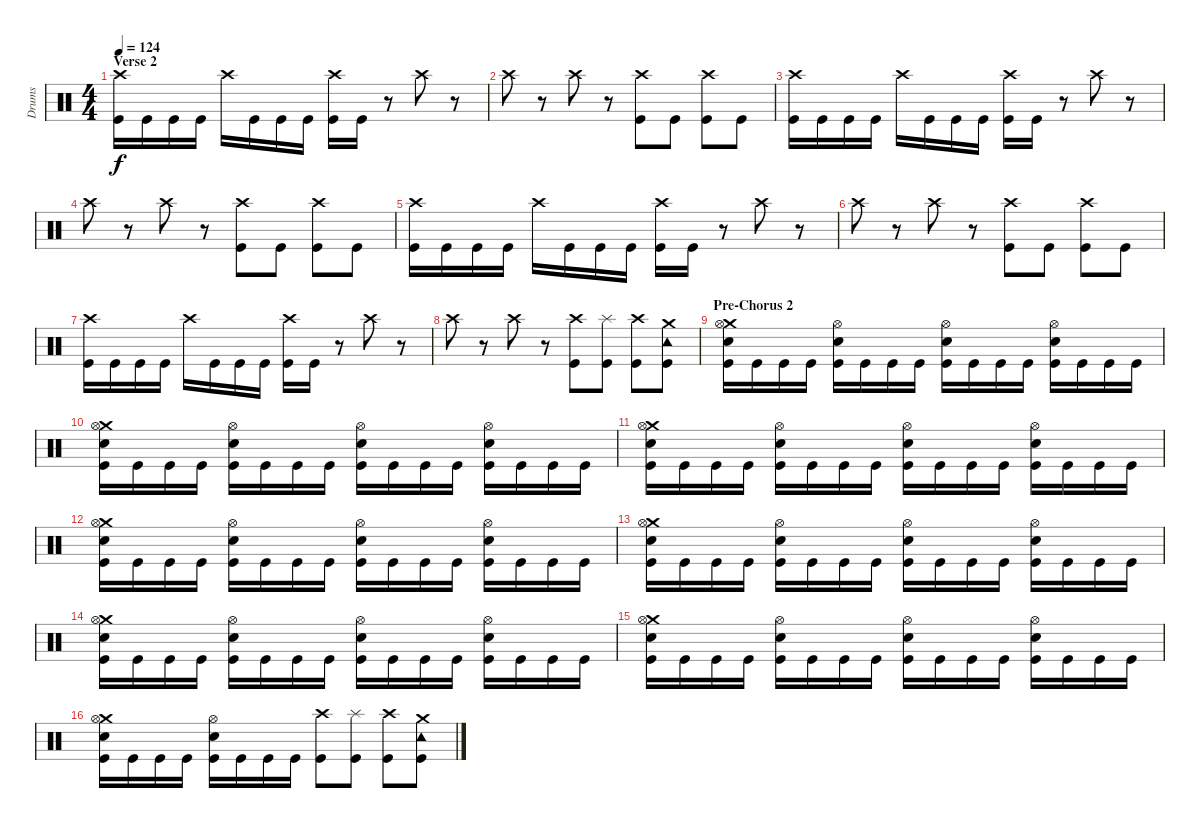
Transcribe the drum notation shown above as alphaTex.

\track ("Drums" "Drums") {instrument percussion}
\staff {score}
\articulation defaults
\ts (4 4)
\section ("" "Verse 2")
\tempo 124
\clef neutral
\ks c
("Crash high (hit)" "Kick (hit)").16{dy f} "Kick (hit)".16 "Kick (hit)".16 "Kick (hit)".16 "Crash high (hit)".16 "Kick (hit)".16 "Kick (hit)".16 "Kick (hit)".16 ("Crash high (hit)" "Kick (hit)").16 "Kick (hit)".16 r.8 "Crash high (hit)".8 r.8 |
"Crash high (hit)".8 r.8 "Crash high (hit)".8 r.8 ("Crash high (hit)" "Kick (hit)").8 "Kick (hit)".8 ("Crash high (hit)" "Kick (hit)").8 "Kick (hit)".8 |
("Crash high (hit)" "Kick (hit)").16 "Kick (hit)".16 "Kick (hit)".16 "Kick (hit)".16 "Crash high (hit)".16 "Kick (hit)".16 "Kick (hit)".16 "Kick (hit)".16 ("Crash high (hit)" "Kick (hit)").16 "Kick (hit)".16 r.8 "Crash high (hit)".8 r.8 |
"Crash high (hit)".8 r.8 "Crash high (hit)".8 r.8 ("Crash high (hit)" "Kick (hit)").8 "Kick (hit)".8 ("Crash high (hit)" "Kick (hit)").8 "Kick (hit)".8 |
("Crash high (hit)" "Kick (hit)").16 "Kick (hit)".16 "Kick (hit)".16 "Kick (hit)".16 "Crash high (hit)".16 "Kick (hit)".16 "Kick (hit)".16 "Kick (hit)".16 ("Crash high (hit)" "Kick (hit)").16 "Kick (hit)".16 r.8 "Crash high (hit)".8 r.8 |
"Crash high (hit)".8 r.8 "Crash high (hit)".8 r.8 ("Crash high (hit)" "Kick (hit)").8 "Kick (hit)".8 ("Crash high (hit)" "Kick (hit)").8 "Kick (hit)".8 |
("Crash high (hit)" "Kick (hit)").16 "Kick (hit)".16 "Kick (hit)".16 "Kick (hit)".16 "Crash high (hit)".16 "Kick (hit)".16 "Kick (hit)".16 "Kick (hit)".16 ("Crash high (hit)" "Kick (hit)").16 "Kick (hit)".16 r.8 "Crash high (hit)".8 r.8 |
"Crash high (hit)".8 r.8 "Crash high (hit)".8 r.8 ("Crash high (hit)" "Kick (hit)").8 ("Splash (hit)" "Kick (hit)").8 ("Crash high (hit)" "Kick (hit)").8 ("Tambourine (hit)" "Crash medium (hit)" "Kick (hit)").8 |
\section ("" "Pre-Chorus 2")
("Crash medium (hit)" "Electric Snare (hit)" "Hi-Hat (open)" "Kick (hit)").16 "Kick (hit)".16 "Kick (hit)".16 "Kick (hit)".16 ("Electric Snare (hit)" "Hi-Hat (open)" "Kick (hit)").16 "Kick (hit)".16 "Kick (hit)".16 "Kick (hit)".16 ("Electric Snare (hit)" "Hi-Hat (open)" "Kick (hit)").16 "Kick (hit)".16 "Kick (hit)".16 "Kick (hit)".16 ("Hi-Hat (open)" "Electric Snare (hit)" "Kick (hit)").16 "Kick (hit)".16 "Kick (hit)".16 "Kick (hit)".16 |
("Crash medium (hit)" "Electric Snare (hit)" "Hi-Hat (open)" "Kick (hit)").16 "Kick (hit)".16 "Kick (hit)".16 "Kick (hit)".16 ("Electric Snare (hit)" "Hi-Hat (open)" "Kick (hit)").16 "Kick (hit)".16 "Kick (hit)".16 "Kick (hit)".16 ("Electric Snare (hit)" "Hi-Hat (open)" "Kick (hit)").16 "Kick (hit)".16 "Kick (hit)".16 "Kick (hit)".16 ("Hi-Hat (open)" "Electric Snare (hit)" "Kick (hit)").16 "Kick (hit)".16 "Kick (hit)".16 "Kick (hit)".16 |
("Crash medium (hit)" "Electric Snare (hit)" "Hi-Hat (open)" "Kick (hit)").16 "Kick (hit)".16 "Kick (hit)".16 "Kick (hit)".16 ("Electric Snare (hit)" "Hi-Hat (open)" "Kick (hit)").16 "Kick (hit)".16 "Kick (hit)".16 "Kick (hit)".16 ("Electric Snare (hit)" "Hi-Hat (open)" "Kick (hit)").16 "Kick (hit)".16 "Kick (hit)".16 "Kick (hit)".16 ("Hi-Hat (open)" "Electric Snare (hit)" "Kick (hit)").16 "Kick (hit)".16 "Kick (hit)".16 "Kick (hit)".16 |
("Crash medium (hit)" "Electric Snare (hit)" "Hi-Hat (open)" "Kick (hit)").16 "Kick (hit)".16 "Kick (hit)".16 "Kick (hit)".16 ("Electric Snare (hit)" "Hi-Hat (open)" "Kick (hit)").16 "Kick (hit)".16 "Kick (hit)".16 "Kick (hit)".16 ("Electric Snare (hit)" "Hi-Hat (open)" "Kick (hit)").16 "Kick (hit)".16 "Kick (hit)".16 "Kick (hit)".16 ("Hi-Hat (open)" "Electric Snare (hit)" "Kick (hit)").16 "Kick (hit)".16 "Kick (hit)".16 "Kick (hit)".16 |
("Crash medium (hit)" "Electric Snare (hit)" "Hi-Hat (open)" "Kick (hit)").16 "Kick (hit)".16 "Kick (hit)".16 "Kick (hit)".16 ("Electric Snare (hit)" "Hi-Hat (open)" "Kick (hit)").16 "Kick (hit)".16 "Kick (hit)".16 "Kick (hit)".16 ("Electric Snare (hit)" "Hi-Hat (open)" "Kick (hit)").16 "Kick (hit)".16 "Kick (hit)".16 "Kick (hit)".16 ("Hi-Hat (open)" "Electric Snare (hit)" "Kick (hit)").16 "Kick (hit)".16 "Kick (hit)".16 "Kick (hit)".16 |
("Crash medium (hit)" "Electric Snare (hit)" "Hi-Hat (open)" "Kick (hit)").16 "Kick (hit)".16 "Kick (hit)".16 "Kick (hit)".16 ("Electric Snare (hit)" "Hi-Hat (open)" "Kick (hit)").16 "Kick (hit)".16 "Kick (hit)".16 "Kick (hit)".16 ("Electric Snare (hit)" "Hi-Hat (open)" "Kick (hit)").16 "Kick (hit)".16 "Kick (hit)".16 "Kick (hit)".16 ("Hi-Hat (open)" "Electric Snare (hit)" "Kick (hit)").16 "Kick (hit)".16 "Kick (hit)".16 "Kick (hit)".16 |
("Crash medium (hit)" "Electric Snare (hit)" "Hi-Hat (open)" "Kick (hit)").16 "Kick (hit)".16 "Kick (hit)".16 "Kick (hit)".16 ("Electric Snare (hit)" "Hi-Hat (open)" "Kick (hit)").16 "Kick (hit)".16 "Kick (hit)".16 "Kick (hit)".16 ("Electric Snare (hit)" "Hi-Hat (open)" "Kick (hit)").16 "Kick (hit)".16 "Kick (hit)".16 "Kick (hit)".16 ("Hi-Hat (open)" "Electric Snare (hit)" "Kick (hit)").16 "Kick (hit)".16 "Kick (hit)".16 "Kick (hit)".16 |
("Crash medium (hit)" "Electric Snare (hit)" "Hi-Hat (open)" "Kick (hit)").16 "Kick (hit)".16 "Kick (hit)".16 "Kick (hit)".16 ("Electric Snare (hit)" "Hi-Hat (open)" "Kick (hit)").16 "Kick (hit)".16 "Kick (hit)".16 "Kick (hit)".16 ("Crash high (hit)" "Kick (hit)").8 ("Splash (hit)" "Kick (hit)").8 ("Crash high (hit)" "Kick (hit)").8 ("Tambourine (hit)" "Crash medium (hit)" "Kick (hit)").8
